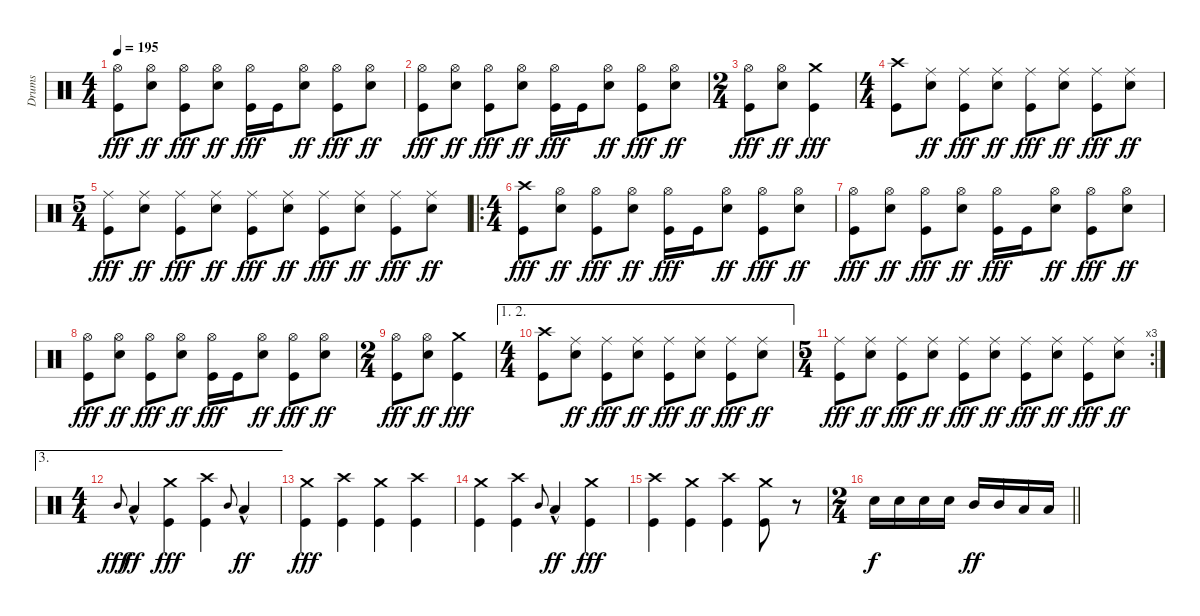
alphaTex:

\track ("Drums" "Drums") {instrument percussion}
\staff {score}
\articulation defaults
\ts (4 4)
\tempo 195
\clef neutral
\ks c
("Hi-Hat (open)" "Kick (hit)").8{dy fff} ("Hi-Hat (open)" "Electric Snare (hit)").8{dy ff} ("Hi-Hat (open)" "Kick (hit)").8{dy fff} ("Hi-Hat (open)" "Electric Snare (hit)").8{dy ff} ("Hi-Hat (open)" "Kick (hit)").16{dy fff} "Kick (hit)".16 ("Hi-Hat (open)" "Electric Snare (hit)").8{dy ff} ("Hi-Hat (open)" "Kick (hit)").8{dy fff} ("Hi-Hat (open)" "Electric Snare (hit)").8{dy ff} |
("Hi-Hat (open)" "Kick (hit)").8{dy fff} ("Hi-Hat (open)" "Electric Snare (hit)").8{dy ff} ("Hi-Hat (open)" "Kick (hit)").8{dy fff} ("Hi-Hat (open)" "Electric Snare (hit)").8{dy ff} ("Hi-Hat (open)" "Kick (hit)").16{dy fff} "Kick (hit)".16 ("Hi-Hat (open)" "Electric Snare (hit)").8{dy ff} ("Hi-Hat (open)" "Kick (hit)").8{dy fff} ("Hi-Hat (open)" "Electric Snare (hit)").8{dy ff} |
\ts (2 4)
("Hi-Hat (open)" "Kick (hit)").8{dy fff} ("Hi-Hat (open)" "Electric Snare (hit)").8{dy ff} ("Crash medium (hit)" "Kick (hit)").4{dy fff} |
\ts (4 4)
("Crash high (hit)" "Kick (hit)").8 ("Ride (middle)" "Electric Snare (hit)").8{dy ff} ("Ride (middle)" "Kick (hit)").8{dy fff} ("Ride (middle)" "Electric Snare (hit)").8{dy ff} ("Ride (middle)" "Kick (hit)").8{dy fff} ("Ride (middle)" "Electric Snare (hit)").8{dy ff} ("Ride (middle)" "Kick (hit)").8{dy fff} ("Ride (middle)" "Electric Snare (hit)").8{dy ff} |
\ts (5 4)
("Ride (middle)" "Kick (hit)").8{dy fff} ("Ride (middle)" "Electric Snare (hit)").8{dy ff} ("Ride (middle)" "Kick (hit)").8{dy fff} ("Ride (middle)" "Electric Snare (hit)").8{dy ff} ("Ride (middle)" "Kick (hit)").8{dy fff} ("Ride (middle)" "Electric Snare (hit)").8{dy ff} ("Ride (middle)" "Kick (hit)").8{dy fff} ("Ride (middle)" "Electric Snare (hit)").8{dy ff} ("Ride (middle)" "Kick (hit)").8{dy fff} ("Ride (middle)" "Electric Snare (hit)").8{dy ff} |
\ro
\ts (4 4)
("Crash high (hit)" "Kick (hit)").8{dy fff} ("Hi-Hat (open)" "Electric Snare (hit)").8{dy ff} ("Hi-Hat (open)" "Kick (hit)").8{dy fff} ("Hi-Hat (open)" "Electric Snare (hit)").8{dy ff} ("Hi-Hat (open)" "Kick (hit)").16{dy fff} "Kick (hit)".16 ("Hi-Hat (open)" "Electric Snare (hit)").8{dy ff} ("Hi-Hat (open)" "Kick (hit)").8{dy fff} ("Hi-Hat (open)" "Electric Snare (hit)").8{dy ff} |
("Hi-Hat (open)" "Kick (hit)").8{dy fff} ("Hi-Hat (open)" "Electric Snare (hit)").8{dy ff} ("Hi-Hat (open)" "Kick (hit)").8{dy fff} ("Hi-Hat (open)" "Electric Snare (hit)").8{dy ff} ("Hi-Hat (open)" "Kick (hit)").16{dy fff} "Kick (hit)".16 ("Hi-Hat (open)" "Electric Snare (hit)").8{dy ff} ("Hi-Hat (open)" "Kick (hit)").8{dy fff} ("Hi-Hat (open)" "Electric Snare (hit)").8{dy ff} |
("Hi-Hat (open)" "Kick (hit)").8{dy fff} ("Hi-Hat (open)" "Electric Snare (hit)").8{dy ff} ("Hi-Hat (open)" "Kick (hit)").8{dy fff} ("Hi-Hat (open)" "Electric Snare (hit)").8{dy ff} ("Hi-Hat (open)" "Kick (hit)").16{dy fff} "Kick (hit)".16 ("Hi-Hat (open)" "Electric Snare (hit)").8{dy ff} ("Hi-Hat (open)" "Kick (hit)").8{dy fff} ("Hi-Hat (open)" "Electric Snare (hit)").8{dy ff} |
\ts (2 4)
("Hi-Hat (open)" "Kick (hit)").8{dy fff} ("Hi-Hat (open)" "Electric Snare (hit)").8{dy ff} ("Crash medium (hit)" "Kick (hit)").4{dy fff} |
\ae (1 2)
\ts (4 4)
("Crash high (hit)" "Kick (hit)").8 ("Ride (middle)" "Electric Snare (hit)").8{dy ff} ("Ride (middle)" "Kick (hit)").8{dy fff} ("Ride (middle)" "Electric Snare (hit)").8{dy ff} ("Ride (middle)" "Kick (hit)").8{dy fff} ("Ride (middle)" "Electric Snare (hit)").8{dy ff} ("Ride (middle)" "Kick (hit)").8{dy fff} ("Ride (middle)" "Electric Snare (hit)").8{dy ff} |
\rc 3
\ts (5 4)
("Ride (middle)" "Kick (hit)").8{dy fff} ("Ride (middle)" "Electric Snare (hit)").8{dy ff} ("Ride (middle)" "Kick (hit)").8{dy fff} ("Ride (middle)" "Electric Snare (hit)").8{dy ff} ("Ride (middle)" "Kick (hit)").8{dy fff} ("Ride (middle)" "Electric Snare (hit)").8{dy ff} ("Ride (middle)" "Kick (hit)").8{dy fff} ("Ride (middle)" "Electric Snare (hit)").8{dy ff} ("Ride (middle)" "Kick (hit)").8{dy fff} ("Ride (middle)" "Electric Snare (hit)").8{dy ff} |
\ae 3
\ts (4 4)
"Mid Tom (hit)".8{gr onbeat dy fff} "Low Tom (hit)"{hac}.4{dy ff} ("Crash medium (hit)" "Kick (hit)").4{dy fff} ("Crash high (hit)" "Kick (hit)").4 "Mid Tom (hit)".8{gr onbeat} "Low Tom (hit)"{hac}.4{dy ff} |
("Crash medium (hit)" "Kick (hit)").4{dy fff} ("Crash high (hit)" "Kick (hit)").4 ("Crash medium (hit)" "Kick (hit)").4 ("Crash high (hit)" "Kick (hit)").4 |
("Crash medium (hit)" "Kick (hit)").4 ("Crash high (hit)" "Kick (hit)").4 "Mid Tom (hit)".8{gr onbeat} "Low Tom (hit)"{hac}.4{dy ff} ("Crash medium (hit)" "Kick (hit)").4{dy fff} |
("Crash high (hit)" "Kick (hit)").4 ("Crash medium (hit)" "Kick (hit)").4 ("Crash high (hit)" "Kick (hit)").4 ("Crash medium (hit)" "Kick (hit)").8 r.8{volume 0} |
\ts (2 4)
\barLineRight lightlight "Electric Snare (hit)".16{dy f volume 13} "Electric Snare (hit)".16 "Electric Snare (hit)".16 "Electric Snare (hit)".16 "Mid Tom (hit)".16{dy ff} "Mid Tom (hit)".16 "Low Tom (hit)".16 "Low Tom (hit)".16
